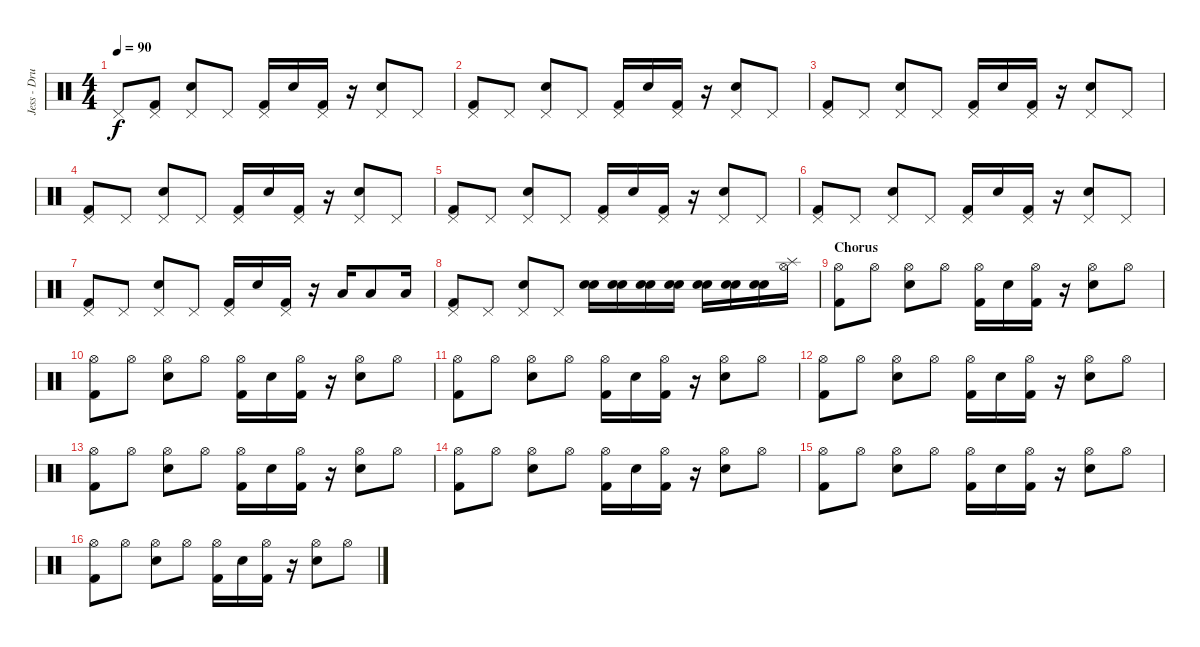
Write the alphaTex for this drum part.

\track ("Jess - Drums" "Jess - Dru") {instrument percussion}
\staff {score}
\articulation defaults
\ts (4 4)
\tempo 90
\clef neutral
\ks c "Pedal Hi-Hat (hit)".8{dy f}
("Pedal Hi-Hat (hit)" "Kick (hit) 2").8 ("Pedal Hi-Hat (hit)" "Electric Snare (hit)").8 "Pedal Hi-Hat (hit)".8 ("Pedal Hi-Hat (hit)" "Kick (hit) 2").16 "Electric Snare (hit)".16 ("Pedal Hi-Hat (hit)" "Kick (hit) 2").16 r.16 ("Pedal Hi-Hat (hit)" "Electric Snare (hit)").8 "Pedal Hi-Hat (hit)".8 |
("Pedal Hi-Hat (hit)" "Kick (hit) 2").8 "Pedal Hi-Hat (hit)".8 ("Pedal Hi-Hat (hit)" "Electric Snare (hit)").8 "Pedal Hi-Hat (hit)".8 ("Pedal Hi-Hat (hit)" "Kick (hit) 2").16 "Electric Snare (hit)".16 ("Pedal Hi-Hat (hit)" "Kick (hit) 2").16 r.16 ("Pedal Hi-Hat (hit)" "Electric Snare (hit)").8 "Pedal Hi-Hat (hit)".8 |
("Pedal Hi-Hat (hit)" "Kick (hit) 2").8 "Pedal Hi-Hat (hit)".8 ("Pedal Hi-Hat (hit)" "Electric Snare (hit)").8 "Pedal Hi-Hat (hit)".8 ("Pedal Hi-Hat (hit)" "Kick (hit) 2").16 "Electric Snare (hit)".16 ("Pedal Hi-Hat (hit)" "Kick (hit) 2").16 r.16 ("Pedal Hi-Hat (hit)" "Electric Snare (hit)").8 "Pedal Hi-Hat (hit)".8 |
("Pedal Hi-Hat (hit)" "Kick (hit) 2").8 "Pedal Hi-Hat (hit)".8 ("Pedal Hi-Hat (hit)" "Electric Snare (hit)").8 "Pedal Hi-Hat (hit)".8 ("Pedal Hi-Hat (hit)" "Kick (hit) 2").16 "Electric Snare (hit)".16 ("Pedal Hi-Hat (hit)" "Kick (hit) 2").16 r.16 ("Pedal Hi-Hat (hit)" "Electric Snare (hit)").8 "Pedal Hi-Hat (hit)".8 |
("Pedal Hi-Hat (hit)" "Kick (hit) 2").8 "Pedal Hi-Hat (hit)".8 ("Pedal Hi-Hat (hit)" "Electric Snare (hit)").8 "Pedal Hi-Hat (hit)".8 ("Pedal Hi-Hat (hit)" "Kick (hit) 2").16 "Electric Snare (hit)".16 ("Pedal Hi-Hat (hit)" "Kick (hit) 2").16 r.16 ("Pedal Hi-Hat (hit)" "Electric Snare (hit)").8 "Pedal Hi-Hat (hit)".8 |
("Pedal Hi-Hat (hit)" "Kick (hit) 2").8 "Pedal Hi-Hat (hit)".8 ("Pedal Hi-Hat (hit)" "Electric Snare (hit)").8 "Pedal Hi-Hat (hit)".8 ("Pedal Hi-Hat (hit)" "Kick (hit) 2").16 "Electric Snare (hit)".16 ("Pedal Hi-Hat (hit)" "Kick (hit) 2").16 r.16 ("Pedal Hi-Hat (hit)" "Electric Snare (hit)").8 "Pedal Hi-Hat (hit)".8 |
("Pedal Hi-Hat (hit)" "Kick (hit) 2").8 "Pedal Hi-Hat (hit)".8 ("Pedal Hi-Hat (hit)" "Electric Snare (hit)").8 "Pedal Hi-Hat (hit)".8 ("Pedal Hi-Hat (hit)" "Kick (hit) 2").16 "Electric Snare (hit)".16 ("Pedal Hi-Hat (hit)" "Kick (hit) 2").16 r.16 "Low Tom (hit)".16 "Low Tom (hit)".8 "Low Floor Tom (hit)".16 |
("Pedal Hi-Hat (hit)" "Kick (hit) 2").8 "Pedal Hi-Hat (hit)".8 ("Pedal Hi-Hat (hit)" "Electric Snare (hit)").8 "Pedal Hi-Hat (hit)".8 ("Snare (hit) 2" "Electric Snare (hit)").16 ("Snare (hit) 2" "Electric Snare (hit)").16 ("Snare (hit) 2" "Electric Snare (hit)").16 ("Snare (hit) 2" "Electric Snare (hit)").16 ("Snare (hit) 2" "Electric Snare (hit)").16 ("Snare (hit) 2" "Electric Snare (hit)").16 ("Snare (hit) 2" "Electric Snare (hit)").16 ("Splash (hit)" "Hi-Hat (open)").16 |
\section ("" "Chorus")
("Hi-Hat (open)" "Kick (hit) 2").8{volume 10} "Hi-Hat (open)".8 ("Hi-Hat (open)" "Electric Snare (hit)").8 "Hi-Hat (open)".8 ("Hi-Hat (open)" "Kick (hit) 2").16 "Electric Snare (hit)".16 ("Hi-Hat (open)" "Kick (hit) 2").16 r.16 ("Hi-Hat (open)" "Electric Snare (hit)").8 "Hi-Hat (open)".8 |
("Hi-Hat (open)" "Kick (hit) 2").8 "Hi-Hat (open)".8 ("Hi-Hat (open)" "Electric Snare (hit)").8 "Hi-Hat (open)".8 ("Hi-Hat (open)" "Kick (hit) 2").16 "Electric Snare (hit)".16 ("Hi-Hat (open)" "Kick (hit) 2").16 r.16 ("Hi-Hat (open)" "Electric Snare (hit)").8 "Hi-Hat (open)".8 |
("Hi-Hat (open)" "Kick (hit) 2").8 "Hi-Hat (open)".8 ("Hi-Hat (open)" "Electric Snare (hit)").8 "Hi-Hat (open)".8 ("Hi-Hat (open)" "Kick (hit) 2").16 "Electric Snare (hit)".16 ("Hi-Hat (open)" "Kick (hit) 2").16 r.16 ("Hi-Hat (open)" "Electric Snare (hit)").8 "Hi-Hat (open)".8 |
("Hi-Hat (open)" "Kick (hit) 2").8 "Hi-Hat (open)".8 ("Hi-Hat (open)" "Electric Snare (hit)").8 "Hi-Hat (open)".8 ("Hi-Hat (open)" "Kick (hit) 2").16 "Electric Snare (hit)".16 ("Hi-Hat (open)" "Kick (hit) 2").16 r.16 ("Hi-Hat (open)" "Electric Snare (hit)").8 "Hi-Hat (open)".8 |
("Hi-Hat (open)" "Kick (hit) 2").8 "Hi-Hat (open)".8 ("Hi-Hat (open)" "Electric Snare (hit)").8 "Hi-Hat (open)".8 ("Hi-Hat (open)" "Kick (hit) 2").16 "Electric Snare (hit)".16 ("Hi-Hat (open)" "Kick (hit) 2").16 r.16 ("Hi-Hat (open)" "Electric Snare (hit)").8 "Hi-Hat (open)".8 |
("Hi-Hat (open)" "Kick (hit) 2").8 "Hi-Hat (open)".8 ("Hi-Hat (open)" "Electric Snare (hit)").8 "Hi-Hat (open)".8 ("Hi-Hat (open)" "Kick (hit) 2").16 "Electric Snare (hit)".16 ("Hi-Hat (open)" "Kick (hit) 2").16 r.16 ("Hi-Hat (open)" "Electric Snare (hit)").8 "Hi-Hat (open)".8 |
("Hi-Hat (open)" "Kick (hit) 2").8 "Hi-Hat (open)".8 ("Hi-Hat (open)" "Electric Snare (hit)").8 "Hi-Hat (open)".8 ("Hi-Hat (open)" "Kick (hit) 2").16 "Electric Snare (hit)".16 ("Hi-Hat (open)" "Kick (hit) 2").16 r.16 ("Hi-Hat (open)" "Electric Snare (hit)").8 "Hi-Hat (open)".8 |
("Hi-Hat (open)" "Kick (hit) 2").8 "Hi-Hat (open)".8 ("Hi-Hat (open)" "Electric Snare (hit)").8 "Hi-Hat (open)".8 ("Hi-Hat (open)" "Kick (hit) 2").16 "Electric Snare (hit)".16 ("Hi-Hat (open)" "Kick (hit) 2").16 r.16 ("Hi-Hat (open)" "Electric Snare (hit)").8 "Hi-Hat (open)".8
